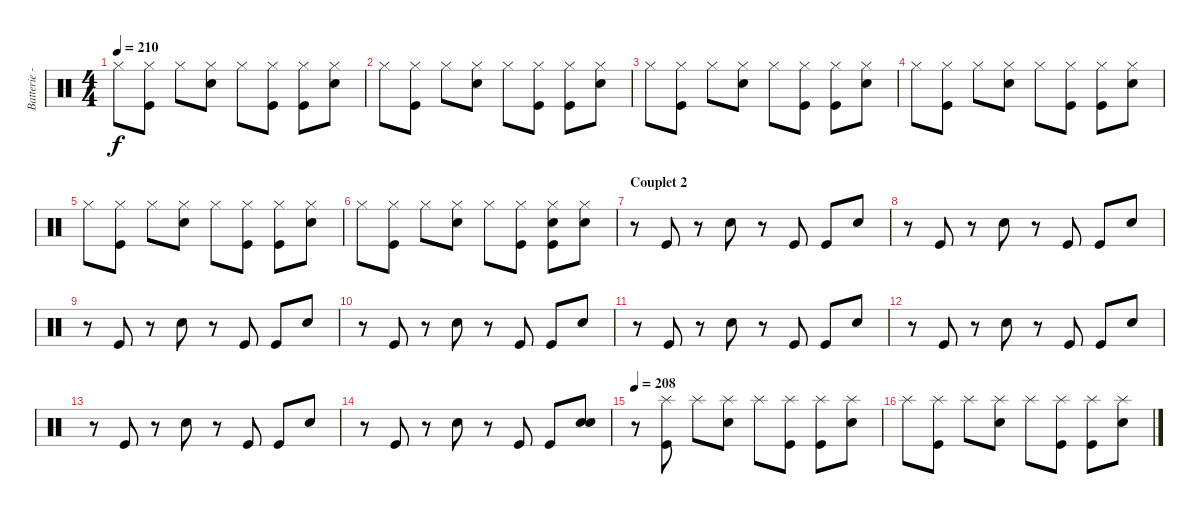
\track ("Batterie - Guillaume" "Batterie -") {instrument percussion}
\staff {score}
\articulation defaults
\ts (4 4)
\tempo 210
\clef neutral
\ks c "Hi-Hat (closed)".8{dy f}
("Hi-Hat (closed)" "Kick (hit)").8 "Hi-Hat (closed)".8 ("Hi-Hat (closed)" "Snare (hit) 2").8 "Hi-Hat (closed)".8 ("Hi-Hat (closed)" "Kick (hit)").8 ("Hi-Hat (closed)" "Kick (hit)").8 ("Hi-Hat (closed)" "Snare (hit) 2").8 |
"Hi-Hat (closed)".8 ("Hi-Hat (closed)" "Kick (hit)").8 "Hi-Hat (closed)".8 ("Hi-Hat (closed)" "Snare (hit) 2").8 "Hi-Hat (closed)".8 ("Hi-Hat (closed)" "Kick (hit)").8 ("Hi-Hat (closed)" "Kick (hit)").8 ("Hi-Hat (closed)" "Snare (hit) 2").8 |
"Hi-Hat (closed)".8 ("Hi-Hat (closed)" "Kick (hit)").8 "Hi-Hat (closed)".8 ("Hi-Hat (closed)" "Snare (hit) 2").8 "Hi-Hat (closed)".8 ("Hi-Hat (closed)" "Kick (hit)").8 ("Hi-Hat (closed)" "Kick (hit)").8 ("Hi-Hat (closed)" "Snare (hit) 2").8 |
"Hi-Hat (closed)".8 ("Hi-Hat (closed)" "Kick (hit)").8 "Hi-Hat (closed)".8 ("Hi-Hat (closed)" "Snare (hit) 2").8 "Hi-Hat (closed)".8 ("Hi-Hat (closed)" "Kick (hit)").8 ("Hi-Hat (closed)" "Kick (hit)").8 ("Hi-Hat (closed)" "Snare (hit) 2").8 |
"Hi-Hat (closed)".8 ("Hi-Hat (closed)" "Kick (hit)").8 "Hi-Hat (closed)".8 ("Hi-Hat (closed)" "Snare (hit) 2").8 "Hi-Hat (closed)".8 ("Hi-Hat (closed)" "Kick (hit)").8 ("Hi-Hat (closed)" "Kick (hit)").8 ("Hi-Hat (closed)" "Snare (hit) 2").8 |
"Hi-Hat (closed)".8 ("Hi-Hat (closed)" "Kick (hit)").8 "Hi-Hat (closed)".8 ("Hi-Hat (closed)" "Snare (hit) 2").8 "Hi-Hat (closed)".8 ("Hi-Hat (closed)" "Kick (hit)").8 ("Hi-Hat (closed)" "Snare (hit) 2" "Kick (hit)").8 ("Hi-Hat (closed)" "Snare (hit) 2").8 |
\section ("" "Couplet 2")
r.8 "Kick (hit)".8 r.8 "Snare (hit) 2".8 r.8 "Kick (hit)".8 "Kick (hit)".8 "Snare (hit) 2".8 |
r.8 "Kick (hit)".8 r.8 "Snare (hit) 2".8 r.8 "Kick (hit)".8 "Kick (hit)".8 "Snare (hit) 2".8 |
r.8 "Kick (hit)".8 r.8 "Snare (hit) 2".8 r.8 "Kick (hit)".8 "Kick (hit)".8 "Snare (hit) 2".8 |
r.8 "Kick (hit)".8 r.8 "Snare (hit) 2".8 r.8 "Kick (hit)".8 "Kick (hit)".8 "Snare (hit) 2".8 |
r.8 "Kick (hit)".8 r.8 "Snare (hit) 2".8 r.8 "Kick (hit)".8 "Kick (hit)".8 "Snare (hit) 2".8 |
r.8 "Kick (hit)".8 r.8 "Snare (hit) 2".8 r.8 "Kick (hit)".8 "Kick (hit)".8 "Snare (hit) 2".8 |
r.8 "Kick (hit)".8 r.8 "Snare (hit) 2".8 r.8 "Kick (hit)".8 "Kick (hit)".8 "Snare (hit) 2".8 |
r.8 "Kick (hit)".8 r.8 "Snare (hit) 2".8 r.8 "Kick (hit)".8 "Kick (hit)".8 ("Hand Clap (hit)" "Snare (hit) 2").8 |
\tempo 208
r.8 ("Splash (hit)" "Kick (hit)").8 "Splash (hit)".8 ("Splash (hit)" "Snare (hit) 2").8 "Splash (hit)".8 ("Splash (hit)" "Kick (hit)").8 ("Splash (hit)" "Kick (hit)").8 ("Splash (hit)" "Snare (hit) 2").8 |
"Splash (hit)".8 ("Splash (hit)" "Kick (hit)").8 "Splash (hit)".8 ("Splash (hit)" "Snare (hit) 2").8 "Splash (hit)".8 ("Splash (hit)" "Kick (hit)").8 ("Splash (hit)" "Kick (hit)").8 ("Splash (hit)" "Snare (hit) 2").8
